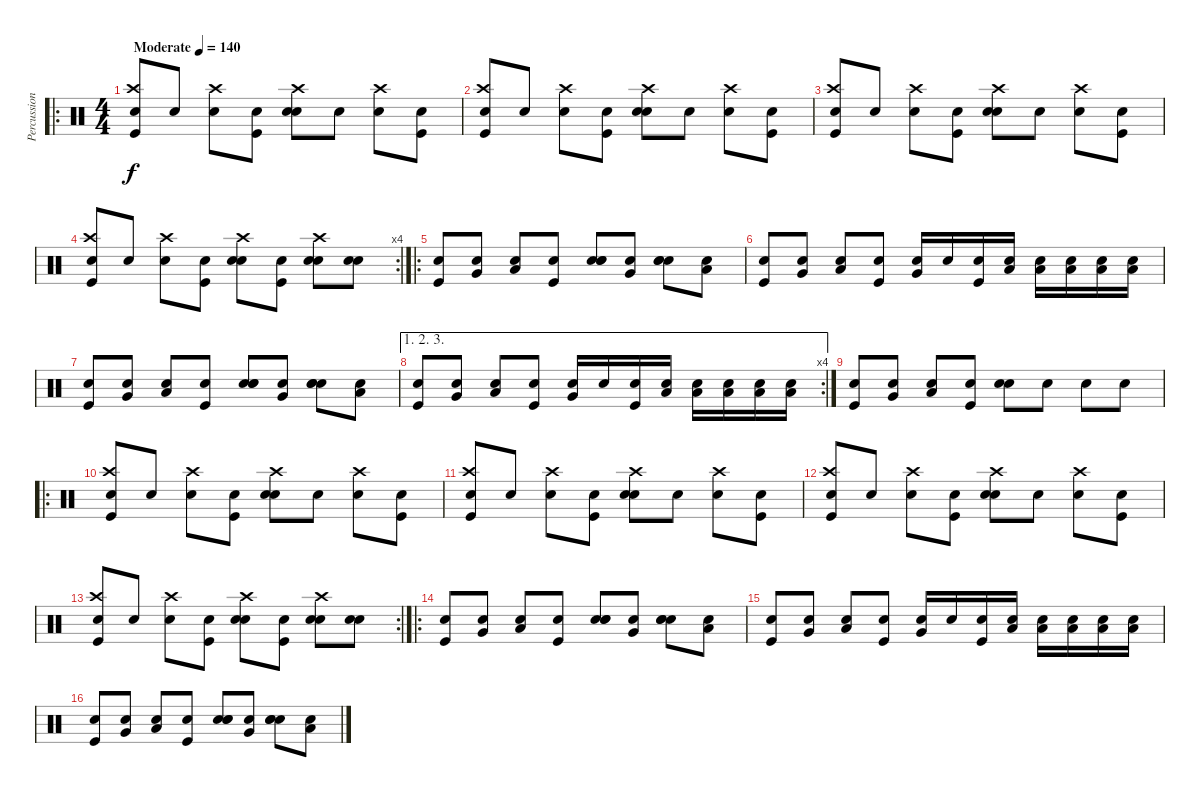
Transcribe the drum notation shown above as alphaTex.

\track ("Percussion" "Percussion") {instrument percussion}
\staff {score}
\articulation defaults
\ro
\ts (4 4)
\tempo (140 "Moderate")
\clef neutral
\ks c
("Snare (hit)" "Crash high (hit)" "Kick (hit)").8{dy f} "Snare (hit)".8 ("Snare (hit)" "Crash high (hit)").8 ("Snare (hit)" "Kick (hit)").8 ("Snare (hit)" "Crash high (hit)" "Snare (hit) 2").8 "Snare (hit)".8 ("Snare (hit)" "Crash high (hit)").8 ("Snare (hit)" "Kick (hit)").8 |
("Snare (hit)" "Crash high (hit)" "Kick (hit)").8 "Snare (hit)".8 ("Snare (hit)" "Crash high (hit)").8 ("Snare (hit)" "Kick (hit)").8 ("Snare (hit)" "Crash high (hit)" "Snare (hit) 2").8 "Snare (hit)".8 ("Snare (hit)" "Crash high (hit)").8 ("Snare (hit)" "Kick (hit)").8 |
("Snare (hit)" "Crash high (hit)" "Kick (hit)").8 "Snare (hit)".8 ("Snare (hit)" "Crash high (hit)").8 ("Snare (hit)" "Kick (hit)").8 ("Snare (hit)" "Crash high (hit)" "Snare (hit) 2").8 "Snare (hit)".8 ("Snare (hit)" "Crash high (hit)").8 ("Snare (hit)" "Kick (hit)").8 |
\rc 4
("Snare (hit)" "Crash high (hit)" "Kick (hit)").8 "Snare (hit)".8 ("Snare (hit)" "Crash high (hit)").8 ("Snare (hit)" "Kick (hit)").8 ("Snare (hit)" "Crash high (hit)" "Snare (hit) 2").8 ("Snare (hit)" "Kick (hit)").8 ("Snare (hit)" "Crash high (hit)" "Snare (hit) 2").8 ("Snare (hit)" "Snare (hit) 2").8 |
\ro
("Snare (hit)" "Kick (hit)").8 ("Snare (hit)" "Very Low Tom (hit)").8 ("Snare (hit)" "Low Floor Tom (hit)").8 ("Snare (hit)" "Kick (hit)").8 ("Snare (hit)" "Snare (hit) 2" "Snare (hit) 2").8 ("Snare (hit)" "Very Low Tom (hit)").8 ("Snare (hit)" "Snare (hit) 2" "Snare (hit) 2").8 ("Snare (hit)" "Low Floor Tom (hit)").8 |
("Snare (hit)" "Kick (hit)").8 ("Snare (hit)" "Very Low Tom (hit)").8 ("Snare (hit)" "Low Floor Tom (hit)").8 ("Snare (hit)" "Kick (hit)").8 ("Snare (hit)" "Very Low Tom (hit)").16 "Snare (hit)".16 ("Snare (hit)" "Kick (hit)").16 ("Snare (hit)" "Low Floor Tom (hit)").16 ("Snare (hit)" "Low Floor Tom (hit)").16 ("Snare (hit)" "Low Floor Tom (hit)").16 ("Snare (hit)" "Low Floor Tom (hit)").16 ("Snare (hit)" "Low Floor Tom (hit)").16 |
("Snare (hit)" "Kick (hit)").8 ("Snare (hit)" "Very Low Tom (hit)").8 ("Snare (hit)" "Low Floor Tom (hit)").8 ("Snare (hit)" "Kick (hit)").8 ("Snare (hit)" "Snare (hit) 2" "Snare (hit) 2").8 ("Snare (hit)" "Very Low Tom (hit)").8 ("Snare (hit)" "Snare (hit) 2" "Snare (hit) 2").8 ("Snare (hit)" "Low Floor Tom (hit)").8 |
\ae (1 2 3)
\rc 4
("Snare (hit)" "Kick (hit)").8 ("Snare (hit)" "Very Low Tom (hit)").8 ("Snare (hit)" "Low Floor Tom (hit)").8 ("Snare (hit)" "Kick (hit)").8 ("Snare (hit)" "Very Low Tom (hit)").16 "Snare (hit)".16 ("Snare (hit)" "Kick (hit)").16 ("Snare (hit)" "Low Floor Tom (hit)").16 ("Snare (hit)" "Low Floor Tom (hit)").16 ("Snare (hit)" "Low Floor Tom (hit)").16 ("Snare (hit)" "Low Floor Tom (hit)").16 ("Snare (hit)" "Low Floor Tom (hit)").16 |
("Snare (hit)" "Kick (hit)").8 ("Snare (hit)" "Very Low Tom (hit)").8 ("Snare (hit)" "Low Floor Tom (hit)").8 ("Snare (hit)" "Kick (hit)").8 ("Snare (hit)" "Snare (hit) 2").8 "Snare (hit)".8 "Snare (hit)".8 "Snare (hit)".8 |
\ro
("Snare (hit)" "Crash high (hit)" "Kick (hit)").8 "Snare (hit)".8 ("Snare (hit)" "Crash high (hit)").8 ("Snare (hit)" "Kick (hit)").8 ("Snare (hit)" "Crash high (hit)" "Snare (hit) 2").8 "Snare (hit)".8 ("Snare (hit)" "Crash high (hit)").8 ("Snare (hit)" "Kick (hit)").8 |
("Snare (hit)" "Crash high (hit)" "Kick (hit)").8 "Snare (hit)".8 ("Snare (hit)" "Crash high (hit)").8 ("Snare (hit)" "Kick (hit)").8 ("Snare (hit)" "Crash high (hit)" "Snare (hit) 2").8 "Snare (hit)".8 ("Snare (hit)" "Crash high (hit)").8 ("Snare (hit)" "Kick (hit)").8 |
("Snare (hit)" "Crash high (hit)" "Kick (hit)").8 "Snare (hit)".8 ("Snare (hit)" "Crash high (hit)").8 ("Snare (hit)" "Kick (hit)").8 ("Snare (hit)" "Crash high (hit)" "Snare (hit) 2").8 "Snare (hit)".8 ("Snare (hit)" "Crash high (hit)").8 ("Snare (hit)" "Kick (hit)").8 |
\rc 2
("Snare (hit)" "Crash high (hit)" "Kick (hit)").8 "Snare (hit)".8 ("Snare (hit)" "Crash high (hit)").8 ("Snare (hit)" "Kick (hit)").8 ("Snare (hit)" "Crash high (hit)" "Snare (hit) 2").8 ("Snare (hit)" "Kick (hit)").8 ("Snare (hit)" "Crash high (hit)" "Snare (hit) 2").8 ("Snare (hit)" "Snare (hit) 2").8 |
\ro
("Snare (hit)" "Kick (hit)").8 ("Snare (hit)" "Very Low Tom (hit)").8 ("Snare (hit)" "Low Floor Tom (hit)").8 ("Snare (hit)" "Kick (hit)").8 ("Snare (hit)" "Snare (hit) 2" "Snare (hit) 2").8 ("Snare (hit)" "Very Low Tom (hit)").8 ("Snare (hit)" "Snare (hit) 2" "Snare (hit) 2").8 ("Snare (hit)" "Low Floor Tom (hit)").8 |
("Snare (hit)" "Kick (hit)").8 ("Snare (hit)" "Very Low Tom (hit)").8 ("Snare (hit)" "Low Floor Tom (hit)").8 ("Snare (hit)" "Kick (hit)").8 ("Snare (hit)" "Very Low Tom (hit)").16 "Snare (hit)".16 ("Snare (hit)" "Kick (hit)").16 ("Snare (hit)" "Low Floor Tom (hit)").16 ("Snare (hit)" "Low Floor Tom (hit)").16 ("Snare (hit)" "Low Floor Tom (hit)").16 ("Snare (hit)" "Low Floor Tom (hit)").16 ("Snare (hit)" "Low Floor Tom (hit)").16 |
("Snare (hit)" "Kick (hit)").8 ("Snare (hit)" "Very Low Tom (hit)").8 ("Snare (hit)" "Low Floor Tom (hit)").8 ("Snare (hit)" "Kick (hit)").8 ("Snare (hit)" "Snare (hit) 2" "Snare (hit) 2").8 ("Snare (hit)" "Very Low Tom (hit)").8 ("Snare (hit)" "Snare (hit) 2" "Snare (hit) 2").8 ("Snare (hit)" "Low Floor Tom (hit)").8
